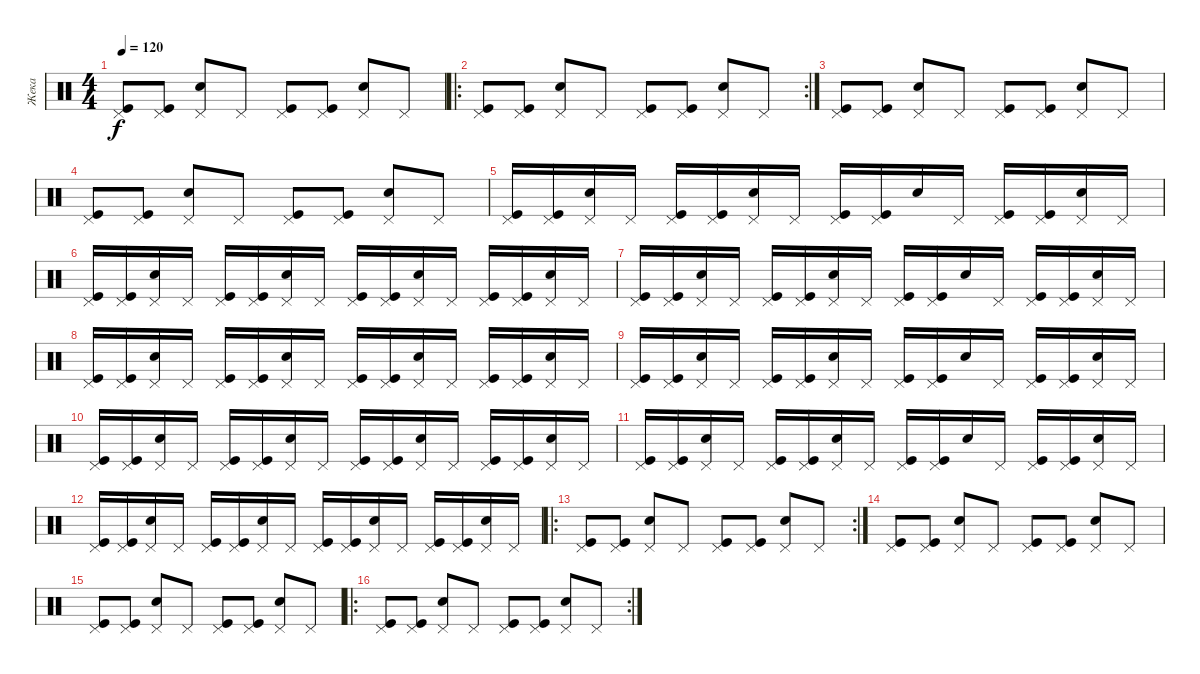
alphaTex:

\track ("Жека" "Жека") {solo instrument percussion}
\staff {score}
\articulation defaults
\ts (4 4)
\tempo 120
\clef neutral
\ks c
("Kick (hit)" "Pedal Hi-Hat (hit)").8{dy f} ("Kick (hit)" "Pedal Hi-Hat (hit)").8 ("Pedal Hi-Hat (hit)" "Snare (hit) 2").8 "Pedal Hi-Hat (hit)".8 ("Kick (hit)" "Pedal Hi-Hat (hit)").8 ("Kick (hit)" "Pedal Hi-Hat (hit)").8 ("Pedal Hi-Hat (hit)" "Snare (hit) 2").8 "Pedal Hi-Hat (hit)".8 |
\ro
\rc 2
("Kick (hit)" "Pedal Hi-Hat (hit)").8 ("Kick (hit)" "Pedal Hi-Hat (hit)").8 ("Pedal Hi-Hat (hit)" "Snare (hit) 2").8 "Pedal Hi-Hat (hit)".8 ("Kick (hit)" "Pedal Hi-Hat (hit)").8 ("Kick (hit)" "Pedal Hi-Hat (hit)").8 ("Pedal Hi-Hat (hit)" "Snare (hit) 2").8 "Pedal Hi-Hat (hit)".8 |
("Kick (hit)" "Pedal Hi-Hat (hit)").8 ("Kick (hit)" "Pedal Hi-Hat (hit)").8 ("Pedal Hi-Hat (hit)" "Snare (hit) 2").8 "Pedal Hi-Hat (hit)".8 ("Kick (hit)" "Pedal Hi-Hat (hit)").8 ("Kick (hit)" "Pedal Hi-Hat (hit)").8 ("Pedal Hi-Hat (hit)" "Snare (hit) 2").8 "Pedal Hi-Hat (hit)".8 |
("Kick (hit)" "Pedal Hi-Hat (hit)").8 ("Kick (hit)" "Pedal Hi-Hat (hit)").8 ("Pedal Hi-Hat (hit)" "Snare (hit) 2").8 "Pedal Hi-Hat (hit)".8 ("Kick (hit)" "Pedal Hi-Hat (hit)").8 ("Kick (hit)" "Pedal Hi-Hat (hit)").8 ("Pedal Hi-Hat (hit)" "Snare (hit) 2").8 "Pedal Hi-Hat (hit)".8 |
("Kick (hit)" "Pedal Hi-Hat (hit)").16 ("Kick (hit)" "Pedal Hi-Hat (hit)").16 ("Pedal Hi-Hat (hit)" "Snare (hit) 2").16 "Pedal Hi-Hat (hit)".16 ("Kick (hit)" "Pedal Hi-Hat (hit)").16 ("Kick (hit)" "Pedal Hi-Hat (hit)").16 ("Pedal Hi-Hat (hit)" "Snare (hit) 2").16 "Pedal Hi-Hat (hit)".16 ("Kick (hit)" "Pedal Hi-Hat (hit)").16 ("Kick (hit)" "Pedal Hi-Hat (hit)").16 "Snare (hit) 2".16 "Pedal Hi-Hat (hit)".16 ("Kick (hit)" "Pedal Hi-Hat (hit)").16 ("Kick (hit)" "Pedal Hi-Hat (hit)").16 ("Pedal Hi-Hat (hit)" "Snare (hit) 2").16 "Pedal Hi-Hat (hit)".16 |
("Kick (hit)" "Pedal Hi-Hat (hit)").16 ("Kick (hit)" "Pedal Hi-Hat (hit)").16 ("Pedal Hi-Hat (hit)" "Snare (hit) 2").16 "Pedal Hi-Hat (hit)".16 ("Kick (hit)" "Pedal Hi-Hat (hit)").16 ("Kick (hit)" "Pedal Hi-Hat (hit)").16 ("Pedal Hi-Hat (hit)" "Snare (hit) 2").16 "Pedal Hi-Hat (hit)".16 ("Kick (hit)" "Pedal Hi-Hat (hit)").16 ("Kick (hit)" "Pedal Hi-Hat (hit)").16 ("Pedal Hi-Hat (hit)" "Snare (hit) 2").16 "Pedal Hi-Hat (hit)".16 ("Kick (hit)" "Pedal Hi-Hat (hit)").16 ("Kick (hit)" "Pedal Hi-Hat (hit)").16 ("Pedal Hi-Hat (hit)" "Snare (hit) 2").16 "Pedal Hi-Hat (hit)".16 |
("Kick (hit)" "Pedal Hi-Hat (hit)").16 ("Kick (hit)" "Pedal Hi-Hat (hit)").16 ("Pedal Hi-Hat (hit)" "Snare (hit) 2").16 "Pedal Hi-Hat (hit)".16 ("Kick (hit)" "Pedal Hi-Hat (hit)").16 ("Kick (hit)" "Pedal Hi-Hat (hit)").16 ("Pedal Hi-Hat (hit)" "Snare (hit) 2").16 "Pedal Hi-Hat (hit)".16 ("Kick (hit)" "Pedal Hi-Hat (hit)").16 ("Kick (hit)" "Pedal Hi-Hat (hit)").16 "Snare (hit) 2".16 "Pedal Hi-Hat (hit)".16 ("Kick (hit)" "Pedal Hi-Hat (hit)").16 ("Kick (hit)" "Pedal Hi-Hat (hit)").16 ("Pedal Hi-Hat (hit)" "Snare (hit) 2").16 "Pedal Hi-Hat (hit)".16 |
("Kick (hit)" "Pedal Hi-Hat (hit)").16 ("Kick (hit)" "Pedal Hi-Hat (hit)").16 ("Pedal Hi-Hat (hit)" "Snare (hit) 2").16 "Pedal Hi-Hat (hit)".16 ("Kick (hit)" "Pedal Hi-Hat (hit)").16 ("Kick (hit)" "Pedal Hi-Hat (hit)").16 ("Pedal Hi-Hat (hit)" "Snare (hit) 2").16 "Pedal Hi-Hat (hit)".16 ("Kick (hit)" "Pedal Hi-Hat (hit)").16 ("Kick (hit)" "Pedal Hi-Hat (hit)").16 ("Pedal Hi-Hat (hit)" "Snare (hit) 2").16 "Pedal Hi-Hat (hit)".16 ("Kick (hit)" "Pedal Hi-Hat (hit)").16 ("Kick (hit)" "Pedal Hi-Hat (hit)").16 ("Pedal Hi-Hat (hit)" "Snare (hit) 2").16 "Pedal Hi-Hat (hit)".16 |
("Kick (hit)" "Pedal Hi-Hat (hit)").16 ("Kick (hit)" "Pedal Hi-Hat (hit)").16 ("Pedal Hi-Hat (hit)" "Snare (hit) 2").16 "Pedal Hi-Hat (hit)".16 ("Kick (hit)" "Pedal Hi-Hat (hit)").16 ("Kick (hit)" "Pedal Hi-Hat (hit)").16 ("Pedal Hi-Hat (hit)" "Snare (hit) 2").16 "Pedal Hi-Hat (hit)".16 ("Kick (hit)" "Pedal Hi-Hat (hit)").16 ("Kick (hit)" "Pedal Hi-Hat (hit)").16 "Snare (hit) 2".16 "Pedal Hi-Hat (hit)".16 ("Kick (hit)" "Pedal Hi-Hat (hit)").16 ("Kick (hit)" "Pedal Hi-Hat (hit)").16 ("Pedal Hi-Hat (hit)" "Snare (hit) 2").16 "Pedal Hi-Hat (hit)".16 |
("Kick (hit)" "Pedal Hi-Hat (hit)").16 ("Kick (hit)" "Pedal Hi-Hat (hit)").16 ("Pedal Hi-Hat (hit)" "Snare (hit) 2").16 "Pedal Hi-Hat (hit)".16 ("Kick (hit)" "Pedal Hi-Hat (hit)").16 ("Kick (hit)" "Pedal Hi-Hat (hit)").16 ("Pedal Hi-Hat (hit)" "Snare (hit) 2").16 "Pedal Hi-Hat (hit)".16 ("Kick (hit)" "Pedal Hi-Hat (hit)").16 ("Kick (hit)" "Pedal Hi-Hat (hit)").16 ("Pedal Hi-Hat (hit)" "Snare (hit) 2").16 "Pedal Hi-Hat (hit)".16 ("Kick (hit)" "Pedal Hi-Hat (hit)").16 ("Kick (hit)" "Pedal Hi-Hat (hit)").16 ("Pedal Hi-Hat (hit)" "Snare (hit) 2").16 "Pedal Hi-Hat (hit)".16 |
("Kick (hit)" "Pedal Hi-Hat (hit)").16 ("Kick (hit)" "Pedal Hi-Hat (hit)").16 ("Pedal Hi-Hat (hit)" "Snare (hit) 2").16 "Pedal Hi-Hat (hit)".16 ("Kick (hit)" "Pedal Hi-Hat (hit)").16 ("Kick (hit)" "Pedal Hi-Hat (hit)").16 ("Pedal Hi-Hat (hit)" "Snare (hit) 2").16 "Pedal Hi-Hat (hit)".16 ("Kick (hit)" "Pedal Hi-Hat (hit)").16 ("Kick (hit)" "Pedal Hi-Hat (hit)").16 "Snare (hit) 2".16 "Pedal Hi-Hat (hit)".16 ("Kick (hit)" "Pedal Hi-Hat (hit)").16 ("Kick (hit)" "Pedal Hi-Hat (hit)").16 ("Pedal Hi-Hat (hit)" "Snare (hit) 2").16 "Pedal Hi-Hat (hit)".16 |
("Kick (hit)" "Pedal Hi-Hat (hit)").16 ("Kick (hit)" "Pedal Hi-Hat (hit)").16 ("Pedal Hi-Hat (hit)" "Snare (hit) 2").16 "Pedal Hi-Hat (hit)".16 ("Kick (hit)" "Pedal Hi-Hat (hit)").16 ("Kick (hit)" "Pedal Hi-Hat (hit)").16 ("Pedal Hi-Hat (hit)" "Snare (hit) 2").16 "Pedal Hi-Hat (hit)".16 ("Kick (hit)" "Pedal Hi-Hat (hit)").16 ("Kick (hit)" "Pedal Hi-Hat (hit)").16 ("Pedal Hi-Hat (hit)" "Snare (hit) 2").16 "Pedal Hi-Hat (hit)".16 ("Kick (hit)" "Pedal Hi-Hat (hit)").16 ("Kick (hit)" "Pedal Hi-Hat (hit)").16 ("Pedal Hi-Hat (hit)" "Snare (hit) 2").16 "Pedal Hi-Hat (hit)".16 |
\ro
\rc 2
("Kick (hit)" "Pedal Hi-Hat (hit)").8 ("Kick (hit)" "Pedal Hi-Hat (hit)").8 ("Pedal Hi-Hat (hit)" "Snare (hit) 2").8 "Pedal Hi-Hat (hit)".8 ("Kick (hit)" "Pedal Hi-Hat (hit)").8 ("Kick (hit)" "Pedal Hi-Hat (hit)").8 ("Pedal Hi-Hat (hit)" "Snare (hit) 2").8 "Pedal Hi-Hat (hit)".8 |
("Kick (hit)" "Pedal Hi-Hat (hit)").8 ("Kick (hit)" "Pedal Hi-Hat (hit)").8 ("Pedal Hi-Hat (hit)" "Snare (hit) 2").8 "Pedal Hi-Hat (hit)".8 ("Kick (hit)" "Pedal Hi-Hat (hit)").8 ("Kick (hit)" "Pedal Hi-Hat (hit)").8 ("Pedal Hi-Hat (hit)" "Snare (hit) 2").8 "Pedal Hi-Hat (hit)".8 |
("Kick (hit)" "Pedal Hi-Hat (hit)").8 ("Kick (hit)" "Pedal Hi-Hat (hit)").8 ("Pedal Hi-Hat (hit)" "Snare (hit) 2").8 "Pedal Hi-Hat (hit)".8 ("Kick (hit)" "Pedal Hi-Hat (hit)").8 ("Kick (hit)" "Pedal Hi-Hat (hit)").8 ("Pedal Hi-Hat (hit)" "Snare (hit) 2").8 "Pedal Hi-Hat (hit)".8 |
\ro
\rc 2
("Kick (hit)" "Pedal Hi-Hat (hit)").8 ("Kick (hit)" "Pedal Hi-Hat (hit)").8 ("Pedal Hi-Hat (hit)" "Snare (hit) 2").8 "Pedal Hi-Hat (hit)".8 ("Kick (hit)" "Pedal Hi-Hat (hit)").8 ("Kick (hit)" "Pedal Hi-Hat (hit)").8 ("Pedal Hi-Hat (hit)" "Snare (hit) 2").8 "Pedal Hi-Hat (hit)".8
